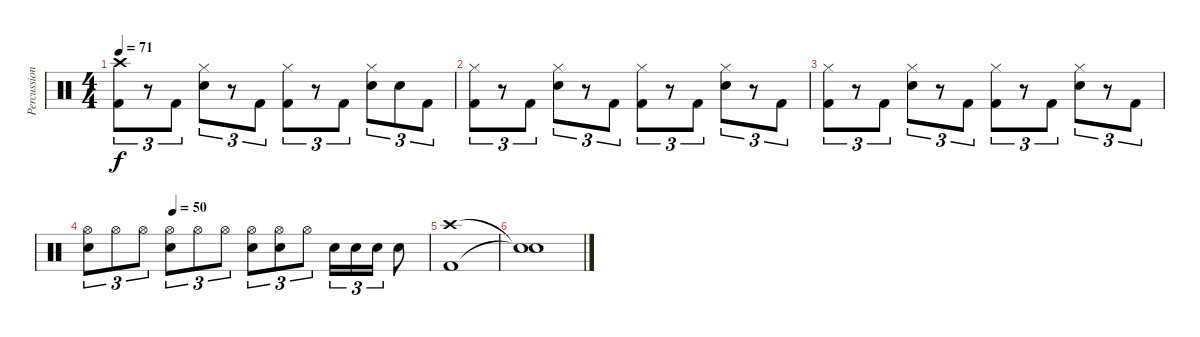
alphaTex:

\track ("Percussion" "Percussion") {instrument percussion}
\staff {score}
\articulation defaults
\ts (4 4)
\tempo 71
\clef neutral
\ks c
("Crash high (hit)" "Kick (hit) 2").8{tu (3 2) dy f} r.8{tu (3 2)} "Kick (hit) 2".8{tu (3 2)} ("Hi-Hat (closed)" "Snare (hit) 2").8{tu (3 2)} r.8{tu (3 2)} "Kick (hit) 2".8{tu (3 2)} ("Hi-Hat (closed)" "Kick (hit) 2").8{tu (3 2)} r.8{tu (3 2)} "Kick (hit) 2".8{tu (3 2)} ("Hi-Hat (closed)" "Snare (hit) 2").8{tu (3 2)} "Snare (hit) 2".8{tu (3 2)} "Kick (hit) 2".8{tu (3 2)} |
("Hi-Hat (closed)" "Kick (hit) 2").8{tu (3 2)} r.8{tu (3 2)} "Kick (hit) 2".8{tu (3 2)} ("Hi-Hat (closed)" "Snare (hit) 2").8{tu (3 2)} r.8{tu (3 2)} "Kick (hit) 2".8{tu (3 2)} ("Hi-Hat (closed)" "Kick (hit) 2").8{tu (3 2)} r.8{tu (3 2)} "Kick (hit) 2".8{tu (3 2)} ("Hi-Hat (closed)" "Snare (hit) 2").8{tu (3 2)} r.8{tu (3 2)} "Kick (hit) 2".8{tu (3 2)} |
("Hi-Hat (closed)" "Kick (hit) 2").8{tu (3 2)} r.8{tu (3 2)} "Kick (hit) 2".8{tu (3 2)} ("Hi-Hat (closed)" "Snare (hit) 2").8{tu (3 2)} r.8{tu (3 2)} "Kick (hit) 2".8{tu (3 2)} ("Hi-Hat (closed)" "Kick (hit) 2").8{tu (3 2)} r.8{tu (3 2)} "Kick (hit) 2".8{tu (3 2)} ("Hi-Hat (closed)" "Snare (hit) 2").8{tu (3 2)} r.8{tu (3 2)} "Kick (hit) 2".8{tu (3 2)} |
\tempo (50 0.25)
("Hi-Hat (open)" "Snare (hit) 2").8{tu (3 2)} "Hi-Hat (open)".8{tu (3 2)} "Hi-Hat (open)".8{tu (3 2)} ("Hi-Hat (open)" "Snare (hit) 2").8{tu (3 2)} "Hi-Hat (open)".8{tu (3 2)} "Hi-Hat (open)".8{tu (3 2)} ("Hi-Hat (open)" "Snare (hit) 2").8{tu (3 2)} ("Hi-Hat (open)" "Snare (hit) 2").8{tu (3 2)} "Hi-Hat (open)".8{tu (3 2)} "Snare (hit) 2".16{tu (3 2)} "Snare (hit) 2".16{tu (3 2)} "Snare (hit) 2".16{tu (3 2)} "Snare (hit) 2".8 |
("Crash high (hit)" "Kick (hit) 2").1 |
("Snare (hit)"{t} "Snare (hit)"{t}).1
